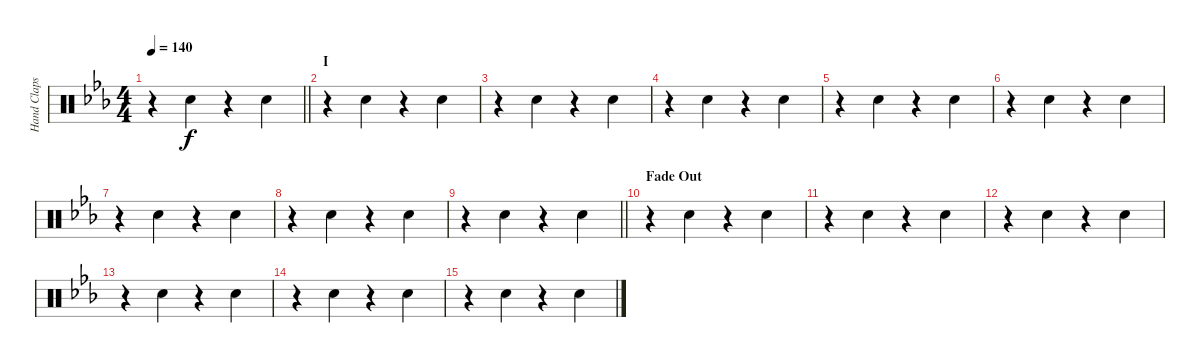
\track ("Hand Claps" "Hand Claps") {instrument percussion}
\staff {score}
\articulation defaults
\ts (4 4)
\tempo 140
\clef neutral
\barLineRight lightlight
\ks eb
r.4{dy f} "Hand Clap (hit)".4 r.4 "Hand Clap (hit)".4 |
\section ("" "I")
r.4 "Hand Clap (hit)".4 r.4 "Hand Clap (hit)".4 |
r.4 "Hand Clap (hit)".4 r.4 "Hand Clap (hit)".4 |
r.4 "Hand Clap (hit)".4 r.4 "Hand Clap (hit)".4 |
r.4 "Hand Clap (hit)".4 r.4 "Hand Clap (hit)".4 |
r.4 "Hand Clap (hit)".4 r.4 "Hand Clap (hit)".4 |
r.4 "Hand Clap (hit)".4 r.4 "Hand Clap (hit)".4 |
r.4 "Hand Clap (hit)".4 r.4 "Hand Clap (hit)".4 |
\barLineRight lightlight
r.4 "Hand Clap (hit)".4 r.4 "Hand Clap (hit)".4 |
\section ("" "Fade Out")
r.4 "Hand Clap (hit)".4 r.4 "Hand Clap (hit)".4 |
r.4 "Hand Clap (hit)".4 r.4 "Hand Clap (hit)".4 |
r.4 "Hand Clap (hit)".4 r.4 "Hand Clap (hit)".4 |
r.4 "Hand Clap (hit)".4 r.4 "Hand Clap (hit)".4 |
r.4 "Hand Clap (hit)".4 r.4 "Hand Clap (hit)".4 |
r.4 "Hand Clap (hit)".4 r.4 "Hand Clap (hit)".4
